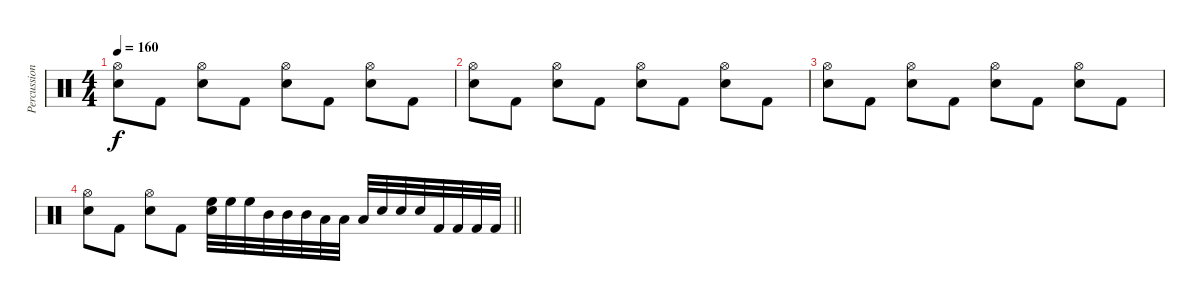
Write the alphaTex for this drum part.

\track ("Percussion" "Percussion") {instrument percussion}
\staff {score}
\articulation defaults
\ts (4 4)
\tempo 160
\clef neutral
\ks c
("Hi-Hat (open)" "Electric Snare (hit)").8{dy f} "Kick (hit) 2".8 ("Hi-Hat (open)" "Electric Snare (hit)").8 "Kick (hit) 2".8 ("Hi-Hat (open)" "Electric Snare (hit)").8 "Kick (hit) 2".8 ("Hi-Hat (open)" "Electric Snare (hit)").8 "Kick (hit) 2".8 |
("Hi-Hat (open)" "Electric Snare (hit)").8 "Kick (hit) 2".8 ("Hi-Hat (open)" "Electric Snare (hit)").8 "Kick (hit) 2".8 ("Hi-Hat (open)" "Electric Snare (hit)").8 "Kick (hit) 2".8 ("Hi-Hat (open)" "Electric Snare (hit)").8 "Kick (hit) 2".8 |
("Hi-Hat (open)" "Electric Snare (hit)").8 "Kick (hit) 2".8 ("Hi-Hat (open)" "Electric Snare (hit)").8 "Kick (hit) 2".8 ("Hi-Hat (open)" "Electric Snare (hit)").8 "Kick (hit) 2".8 ("Hi-Hat (open)" "Electric Snare (hit)").8 "Kick (hit) 2".8 |
\barLineRight lightlight
("Hi-Hat (open)" "Electric Snare (hit)").8 "Kick (hit) 2".8 ("Hi-Hat (open)" "Electric Snare (hit)").8 "Kick (hit) 2".8 ("High Floor Tom (hit)" "Electric Snare (hit)").32 "High Floor Tom (hit)".32 "High Floor Tom (hit)".32 "Mid Tom (hit)".32 "Mid Tom (hit)".32 "Mid Tom (hit)".32 "Low Tom (hit)".32 "Low Tom (hit)".32 "Low Tom (hit)".32 "Electric Snare (hit)".32 "Electric Snare (hit)".32 "Electric Snare (hit)".32 "Kick (hit) 2".32 "Kick (hit) 2".32 "Kick (hit) 2".32 "Kick (hit) 2".32
